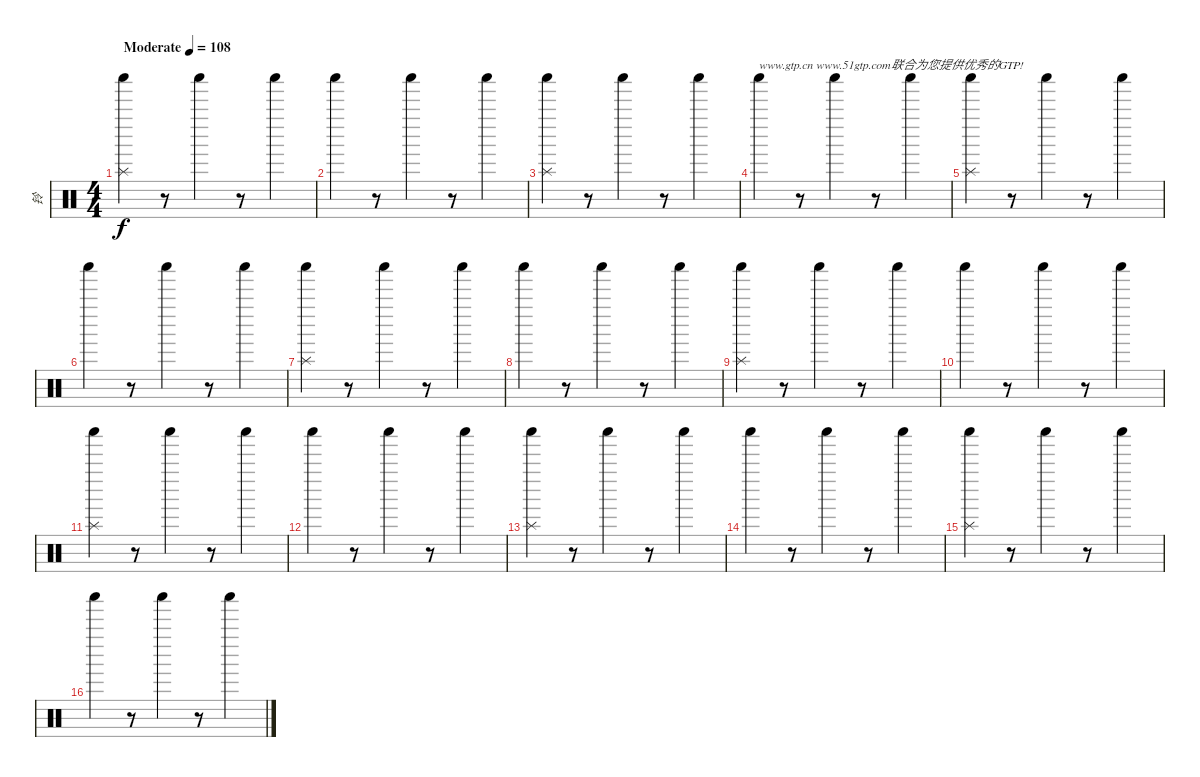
\track ("铃" "铃") {instrument percussion}
\staff {score}
\articulation defaults
\ts (4 4)
\tempo (108 "Moderate")
\clef neutral
\ks c
("Shaker (hit)" "Splash (hit)").4{dy f} r.8 "Shaker (hit)".4 r.8 "Shaker (hit)".4 |
"Shaker (hit)".4 r.8 "Shaker (hit)".4 r.8 "Shaker (hit)".4 |
("Shaker (hit)" "Splash (hit)").4 r.8 "Shaker (hit)".4 r.8 "Shaker (hit)".4 |
"Shaker (hit)".4{txt "www.gtp.cn www.51gtp.com联合为您提供优秀的GTP!"} r.8 "Shaker (hit)".4 r.8 "Shaker (hit)".4 |
("Shaker (hit)" "Splash (hit)").4 r.8 "Shaker (hit)".4 r.8 "Shaker (hit)".4 |
"Shaker (hit)".4 r.8 "Shaker (hit)".4 r.8 "Shaker (hit)".4 |
("Shaker (hit)" "Splash (hit)").4 r.8 "Shaker (hit)".4 r.8 "Shaker (hit)".4 |
"Shaker (hit)".4 r.8 "Shaker (hit)".4 r.8 "Shaker (hit)".4 |
("Shaker (hit)" "Splash (hit)").4 r.8 "Shaker (hit)".4 r.8 "Shaker (hit)".4 |
"Shaker (hit)".4 r.8 "Shaker (hit)".4 r.8 "Shaker (hit)".4 |
("Shaker (hit)" "Splash (hit)").4 r.8 "Shaker (hit)".4 r.8 "Shaker (hit)".4 |
"Shaker (hit)".4 r.8 "Shaker (hit)".4 r.8 "Shaker (hit)".4 |
("Shaker (hit)" "Splash (hit)").4 r.8 "Shaker (hit)".4 r.8 "Shaker (hit)".4 |
"Shaker (hit)".4 r.8 "Shaker (hit)".4 r.8 "Shaker (hit)".4 |
("Shaker (hit)" "Splash (hit)").4 r.8 "Shaker (hit)".4 r.8 "Shaker (hit)".4 |
"Shaker (hit)".4 r.8 "Shaker (hit)".4 r.8 "Shaker (hit)".4
